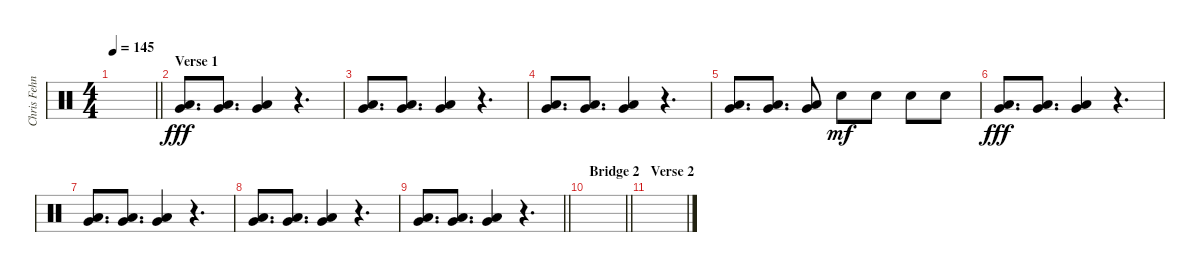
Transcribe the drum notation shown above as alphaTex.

\track ("Chris Fehn" "Chris Fehn") {instrument percussion}
\staff {score}
\articulation defaults
\ts (4 4)
\tempo 145
\clef neutral
\barLineRight lightlight
\ks c
|
\section ("" "Verse 1")
("Very Low Tom (hit)" "Low Floor Tom (hit)").8{d dy fff} ("Very Low Tom (hit)" "Low Floor Tom (hit)").8{d} ("Very Low Tom (hit)" "Low Floor Tom (hit)").4 r.4{d} |
("Very Low Tom (hit)" "Low Floor Tom (hit)").8{d} ("Very Low Tom (hit)" "Low Floor Tom (hit)").8{d} ("Very Low Tom (hit)" "Low Floor Tom (hit)").4 r.4{d} |
("Very Low Tom (hit)" "Low Floor Tom (hit)").8{d} ("Very Low Tom (hit)" "Low Floor Tom (hit)").8{d} ("Very Low Tom (hit)" "Low Floor Tom (hit)").4 r.4{d} |
("Very Low Tom (hit)" "Low Floor Tom (hit)").8{d} ("Very Low Tom (hit)" "Low Floor Tom (hit)").8{d} ("Very Low Tom (hit)" "Low Floor Tom (hit)").8 "Electric Snare (hit)".8{dy mf} "Electric Snare (hit)".8 "Electric Snare (hit)".8 "Electric Snare (hit)".8 |
("Very Low Tom (hit)" "Low Floor Tom (hit)").8{d dy fff} ("Very Low Tom (hit)" "Low Floor Tom (hit)").8{d} ("Very Low Tom (hit)" "Low Floor Tom (hit)").4 r.4{d} |
("Very Low Tom (hit)" "Low Floor Tom (hit)").8{d} ("Very Low Tom (hit)" "Low Floor Tom (hit)").8{d} ("Very Low Tom (hit)" "Low Floor Tom (hit)").4 r.4{d} |
("Very Low Tom (hit)" "Low Floor Tom (hit)").8{d} ("Very Low Tom (hit)" "Low Floor Tom (hit)").8{d} ("Very Low Tom (hit)" "Low Floor Tom (hit)").4 r.4{d} |
\barLineRight lightlight
("Very Low Tom (hit)" "Low Floor Tom (hit)").8{d} ("Very Low Tom (hit)" "Low Floor Tom (hit)").8{d} ("Very Low Tom (hit)" "Low Floor Tom (hit)").4 r.4{d} |
\section ("" "Bridge 2")
\barLineRight lightlight
|
\section ("" "Verse 2")
